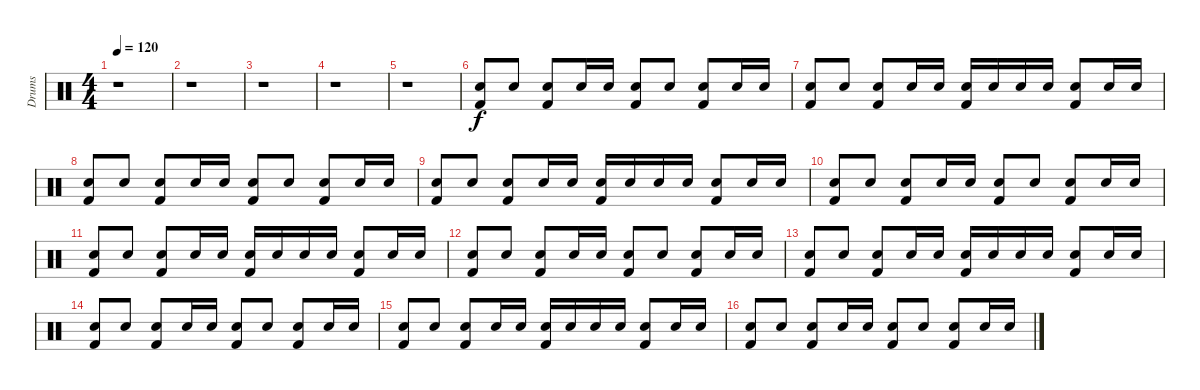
\track ("Drums" "Drums") {instrument percussion}
\staff {score}
\articulation defaults
\ts (4 4)
\tempo 120
\clef neutral
\ks c
r.1{dy f} |
r.1 |
r.1 |
r.1 |
r.1 |
("Electric Snare (hit)" "Kick (hit) 2").8 "Electric Snare (hit)".8 ("Electric Snare (hit)" "Kick (hit) 2").8 "Electric Snare (hit)".16 "Electric Snare (hit)".16 ("Electric Snare (hit)" "Kick (hit) 2").8 "Electric Snare (hit)".8 ("Electric Snare (hit)" "Kick (hit) 2").8 "Electric Snare (hit)".16 "Electric Snare (hit)".16 |
("Electric Snare (hit)" "Kick (hit) 2").8 "Electric Snare (hit)".8 ("Electric Snare (hit)" "Kick (hit) 2").8 "Electric Snare (hit)".16 "Electric Snare (hit)".16 ("Electric Snare (hit)" "Kick (hit) 2").16 "Electric Snare (hit)".16 "Electric Snare (hit)".16 "Electric Snare (hit)".16 ("Electric Snare (hit)" "Kick (hit) 2").8 "Electric Snare (hit)".16 "Electric Snare (hit)".16 |
("Electric Snare (hit)" "Kick (hit) 2").8 "Electric Snare (hit)".8 ("Electric Snare (hit)" "Kick (hit) 2").8 "Electric Snare (hit)".16 "Electric Snare (hit)".16 ("Electric Snare (hit)" "Kick (hit) 2").8 "Electric Snare (hit)".8 ("Electric Snare (hit)" "Kick (hit) 2").8 "Electric Snare (hit)".16 "Electric Snare (hit)".16 |
("Electric Snare (hit)" "Kick (hit) 2").8 "Electric Snare (hit)".8 ("Electric Snare (hit)" "Kick (hit) 2").8 "Electric Snare (hit)".16 "Electric Snare (hit)".16 ("Electric Snare (hit)" "Kick (hit) 2").16 "Electric Snare (hit)".16 "Electric Snare (hit)".16 "Electric Snare (hit)".16 ("Electric Snare (hit)" "Kick (hit) 2").8 "Electric Snare (hit)".16 "Electric Snare (hit)".16 |
("Electric Snare (hit)" "Kick (hit) 2").8 "Electric Snare (hit)".8 ("Electric Snare (hit)" "Kick (hit) 2").8 "Electric Snare (hit)".16 "Electric Snare (hit)".16 ("Electric Snare (hit)" "Kick (hit) 2").8 "Electric Snare (hit)".8 ("Electric Snare (hit)" "Kick (hit) 2").8 "Electric Snare (hit)".16 "Electric Snare (hit)".16 |
("Electric Snare (hit)" "Kick (hit) 2").8 "Electric Snare (hit)".8 ("Electric Snare (hit)" "Kick (hit) 2").8 "Electric Snare (hit)".16 "Electric Snare (hit)".16 ("Electric Snare (hit)" "Kick (hit) 2").16 "Electric Snare (hit)".16 "Electric Snare (hit)".16 "Electric Snare (hit)".16 ("Electric Snare (hit)" "Kick (hit) 2").8 "Electric Snare (hit)".16 "Electric Snare (hit)".16 |
("Electric Snare (hit)" "Kick (hit) 2").8 "Electric Snare (hit)".8 ("Electric Snare (hit)" "Kick (hit) 2").8 "Electric Snare (hit)".16 "Electric Snare (hit)".16 ("Electric Snare (hit)" "Kick (hit) 2").8 "Electric Snare (hit)".8 ("Electric Snare (hit)" "Kick (hit) 2").8 "Electric Snare (hit)".16 "Electric Snare (hit)".16 |
("Electric Snare (hit)" "Kick (hit) 2").8 "Electric Snare (hit)".8 ("Electric Snare (hit)" "Kick (hit) 2").8 "Electric Snare (hit)".16 "Electric Snare (hit)".16 ("Electric Snare (hit)" "Kick (hit) 2").16 "Electric Snare (hit)".16 "Electric Snare (hit)".16 "Electric Snare (hit)".16 ("Electric Snare (hit)" "Kick (hit) 2").8 "Electric Snare (hit)".16 "Electric Snare (hit)".16 |
("Electric Snare (hit)" "Kick (hit) 2").8 "Electric Snare (hit)".8 ("Electric Snare (hit)" "Kick (hit) 2").8 "Electric Snare (hit)".16 "Electric Snare (hit)".16 ("Electric Snare (hit)" "Kick (hit) 2").8 "Electric Snare (hit)".8 ("Electric Snare (hit)" "Kick (hit) 2").8 "Electric Snare (hit)".16 "Electric Snare (hit)".16 |
("Electric Snare (hit)" "Kick (hit) 2").8 "Electric Snare (hit)".8 ("Electric Snare (hit)" "Kick (hit) 2").8 "Electric Snare (hit)".16 "Electric Snare (hit)".16 ("Electric Snare (hit)" "Kick (hit) 2").16 "Electric Snare (hit)".16 "Electric Snare (hit)".16 "Electric Snare (hit)".16 ("Electric Snare (hit)" "Kick (hit) 2").8 "Electric Snare (hit)".16 "Electric Snare (hit)".16 |
("Electric Snare (hit)" "Kick (hit) 2").8 "Electric Snare (hit)".8 ("Electric Snare (hit)" "Kick (hit) 2").8 "Electric Snare (hit)".16 "Electric Snare (hit)".16 ("Electric Snare (hit)" "Kick (hit) 2").8 "Electric Snare (hit)".8 ("Electric Snare (hit)" "Kick (hit) 2").8 "Electric Snare (hit)".16 "Electric Snare (hit)".16
